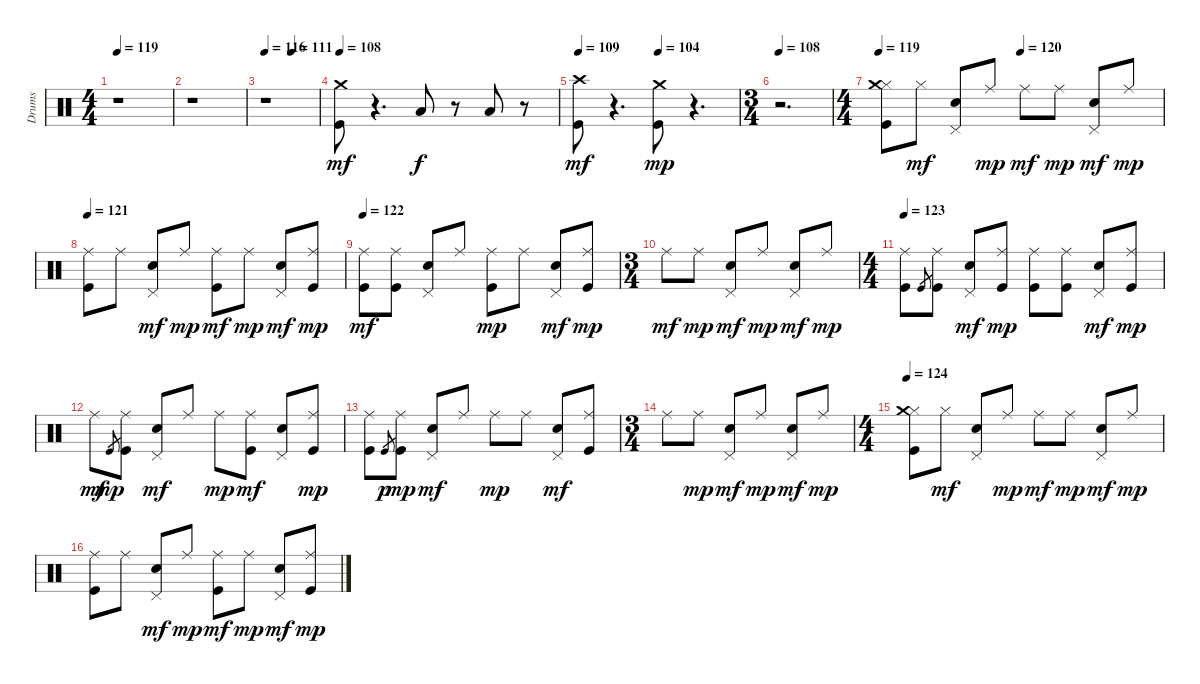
\track ("Drums" "Drums") {instrument percussion}
\staff {score}
\articulation defaults
\ts (4 4)
\tempo 119
\clef neutral
\ks c
r.1{dy mf} |
r.1 |
\tempo 116
\tempo (111 0.5)
r.1 |
\tempo 108
("Kick (hit)" "Crash medium (hit)").8 r.4{d} "Low Tom (hit)".8{dy f} r.8 "Low Floor Tom (hit)".8 r.8 |
\tempo 109
\tempo (104 0.5)
("Kick (hit)" "Crash high (hit)").8{dy mf} r.4{d} ("Kick (hit)" "Crash medium (hit)").8{dy mp} r.4{d} |
\ts (3 4)
\tempo 108
r.2{d} |
\ts (4 4)
\tempo 119
\tempo (120 0.5)
("Kick (hit)" "Hi-Hat (closed)" "Crash medium (hit)").8 "Hi-Hat (closed)".8{dy mf} ("Electric Snare (hit)" "Pedal Hi-Hat (hit)").8 "Ride (middle)".8{dy mp} "Ride (middle)".8{dy mf} "Ride (middle)".8{dy mp} ("Electric Snare (hit)" "Pedal Hi-Hat (hit)").8{dy mf} "Ride (middle)".8{dy mp} |
\tempo 121
("Kick (hit)" "Ride (middle)").8 "Ride (middle)".8 ("Electric Snare (hit)" "Pedal Hi-Hat (hit)").8{dy mf} "Ride (middle)".8{dy mp} ("Kick (hit)" "Ride (middle)").8{dy mf} "Ride (middle)".8{dy mp} ("Electric Snare (hit)" "Pedal Hi-Hat (hit)").8{dy mf} ("Kick (hit)" "Ride (middle)").8{dy mp} |
\tempo 122
("Kick (hit)" "Ride (middle)").8{dy mf} ("Kick (hit)" "Ride (middle)").8 ("Electric Snare (hit)" "Pedal Hi-Hat (hit)").8 "Ride (middle)".8 ("Kick (hit)" "Ride (middle)").8{dy mp} "Ride (middle)".8 ("Electric Snare (hit)" "Pedal Hi-Hat (hit)").8{dy mf} ("Kick (hit)" "Ride (middle)").8{dy mp} |
\ts (3 4)
"Ride (middle)".8{dy mf} "Ride (middle)".8{dy mp} ("Electric Snare (hit)" "Pedal Hi-Hat (hit)").8{dy mf} "Ride (middle)".8{dy mp} ("Electric Snare (hit)" "Pedal Hi-Hat (hit)").8{dy mf} "Ride (middle)".8{dy mp} |
\ts (4 4)
\tempo 123
("Kick (hit)" "Ride (middle)").8 "Kick (hit)".8{gr} ("Kick (hit)" "Ride (middle)").8 ("Electric Snare (hit)" "Pedal Hi-Hat (hit)").8{dy mf} ("Kick (hit)" "Ride (middle)").8{dy mp} ("Kick (hit)" "Ride (middle)").8 ("Kick (hit)" "Ride (middle)").8 ("Electric Snare (hit)" "Pedal Hi-Hat (hit)").8{dy mf} ("Kick (hit)" "Ride (middle)").8{dy mp} |
"Ride (middle)".8{dy mf} "Kick (hit)".8{gr dy mp} ("Kick (hit)" "Ride (middle)").8 ("Electric Snare (hit)" "Pedal Hi-Hat (hit)").8{dy mf} "Ride (middle)".8 "Ride (middle)".8{dy mp} ("Kick (hit)" "Ride (middle)").8{dy mf} ("Electric Snare (hit)" "Pedal Hi-Hat (hit)").8 ("Kick (hit)" "Ride (middle)").8{dy mp} |
("Kick (hit)" "Ride (middle)").8 "Kick (hit)".8{gr dy p} ("Kick (hit)" "Ride (middle)").8{dy mp} ("Electric Snare (hit)" "Pedal Hi-Hat (hit)").8{dy mf} "Ride (middle)".8 "Ride (middle)".8{dy mp} "Ride (middle)".8 ("Electric Snare (hit)" "Pedal Hi-Hat (hit)").8{dy mf} ("Kick (hit)" "Ride (middle)").8 |
\ts (3 4)
"Ride (middle)".8 "Ride (middle)".8{dy mp} ("Electric Snare (hit)" "Pedal Hi-Hat (hit)").8{dy mf} "Ride (middle)".8{dy mp} ("Electric Snare (hit)" "Pedal Hi-Hat (hit)").8{dy mf} "Ride (middle)".8{dy mp} |
\ts (4 4)
\tempo 124
("Kick (hit)" "Hi-Hat (closed)" "Crash medium (hit)").8 "Hi-Hat (closed)".8{dy mf} ("Electric Snare (hit)" "Pedal Hi-Hat (hit)").8 "Ride (middle)".8{dy mp} "Ride (middle)".8{dy mf} "Ride (middle)".8{dy mp} ("Electric Snare (hit)" "Pedal Hi-Hat (hit)").8{dy mf} "Ride (middle)".8{dy mp} |
("Kick (hit)" "Ride (middle)").8 "Ride (middle)".8 ("Electric Snare (hit)" "Pedal Hi-Hat (hit)").8{dy mf} "Ride (middle)".8{dy mp} ("Kick (hit)" "Ride (middle)").8{dy mf} "Ride (middle)".8{dy mp} ("Electric Snare (hit)" "Pedal Hi-Hat (hit)").8{dy mf} ("Kick (hit)" "Ride (middle)").8{dy mp}
